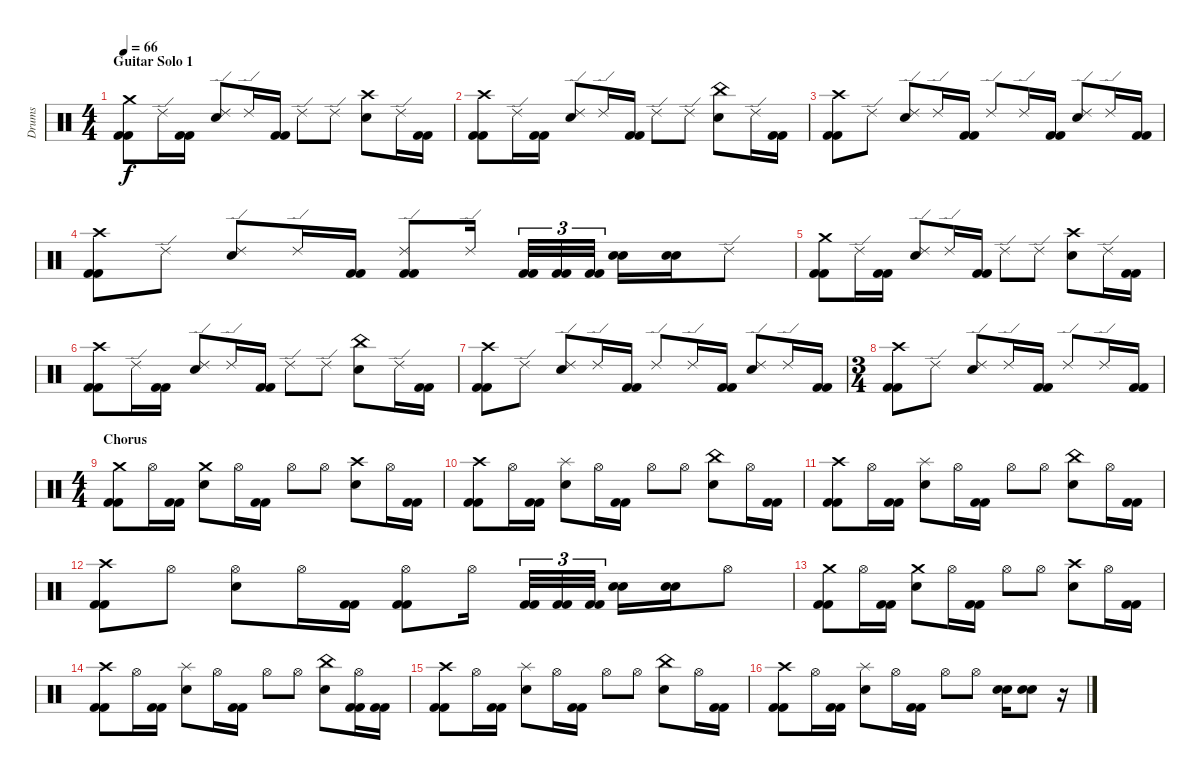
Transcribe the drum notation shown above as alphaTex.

\track ("Drums" "Drums") {instrument percussion}
\staff {score}
\articulation defaults
\ts (4 4)
\section ("" "Guitar Solo 1")
\tempo 66
\clef neutral
\ks c
("Crash medium (hit)" "Kick (hit) 2" "Kick (hit) 2").8{dy f} "Ride (edge) 2".16 ("Kick (hit) 2" "Kick (hit) 2").16 ("Ride (edge) 2" "Snare (hit) 2").8 "Ride (edge) 2".16 ("Kick (hit) 2" "Kick (hit) 2").16 "Ride (edge) 2".8 "Ride (edge) 2".8 ("Crash high (hit)" "Snare (hit) 2").8 "Ride (edge) 2".16 ("Kick (hit) 2" "Kick (hit) 2").16 |
("Crash high (hit)" "Kick (hit) 2" "Kick (hit) 2").8 "Ride (edge) 2".16 ("Kick (hit) 2" "Kick (hit) 2").16 ("Ride (edge) 2" "Snare (hit) 2").8 "Ride (edge) 2".16 ("Kick (hit) 2" "Kick (hit) 2").16 "Ride (edge) 2".8 "Ride (edge) 2".8 ("China (hit)" "Snare (hit) 2").8 "Ride (edge) 2".16 ("Kick (hit) 2" "Kick (hit) 2").16 |
("Crash high (hit)" "Kick (hit) 2" "Kick (hit) 2").8 "Ride (edge) 2".8 ("Ride (edge) 2" "Snare (hit) 2").8 "Ride (edge) 2".16 ("Kick (hit) 2" "Kick (hit) 2").16 "Ride (edge) 2".8 "Ride (edge) 2".16 ("Kick (hit) 2" "Kick (hit) 2").16 ("Ride (edge) 2" "Snare (hit) 2").8 "Ride (edge) 2".16 ("Kick (hit) 2" "Kick (hit) 2").16 |
("Crash high (hit)" "Kick (hit) 2" "Kick (hit) 2").8 "Ride (edge) 2".8 ("Ride (edge) 2" "Snare (hit) 2").8 "Ride (edge) 2".16 ("Kick (hit) 2" "Kick (hit) 2").16 ("Ride (edge) 2" "Kick (hit) 2" "Kick (hit) 2").8 "Ride (edge) 2".16 ("Kick (hit) 2" "Kick (hit) 2").32{tu (3 2)} ("Kick (hit) 2" "Kick (hit) 2").32{tu (3 2)} ("Kick (hit) 2" "Kick (hit) 2").32{tu (3 2)} ("Snare (hit) 2" "Snare (hit) 2").16 ("Snare (hit) 2" "Snare (hit) 2").16 "Ride (edge) 2".8 |
("Crash medium (hit)" "Kick (hit) 2" "Kick (hit) 2").8 "Ride (edge) 2".16 ("Kick (hit) 2" "Kick (hit) 2").16 ("Ride (edge) 2" "Snare (hit) 2").8 "Ride (edge) 2".16 ("Kick (hit) 2" "Kick (hit) 2").16 "Ride (edge) 2".8 "Ride (edge) 2".8 ("Crash high (hit)" "Snare (hit) 2").8 "Ride (edge) 2".16 ("Kick (hit) 2" "Kick (hit) 2").16 |
("Crash high (hit)" "Kick (hit) 2" "Kick (hit) 2").8 "Ride (edge) 2".16 ("Kick (hit) 2" "Kick (hit) 2").16 ("Ride (edge) 2" "Snare (hit) 2").8 "Ride (edge) 2".16 ("Kick (hit) 2" "Kick (hit) 2").16 "Ride (edge) 2".8 "Ride (edge) 2".8 ("China (hit)" "Snare (hit) 2").8 "Ride (edge) 2".16 ("Kick (hit) 2" "Kick (hit) 2").16 |
("Crash high (hit)" "Kick (hit) 2" "Kick (hit) 2").8 "Ride (edge) 2".8 ("Ride (edge) 2" "Snare (hit) 2").8 "Ride (edge) 2".16 ("Kick (hit) 2" "Kick (hit) 2").16 "Ride (edge) 2".8 "Ride (edge) 2".16 ("Kick (hit) 2" "Kick (hit) 2").16 ("Ride (edge) 2" "Snare (hit) 2").8 "Ride (edge) 2".16 ("Kick (hit) 2" "Kick (hit) 2").16 |
\ts (3 4)
("Crash high (hit)" "Kick (hit) 2" "Kick (hit) 2").8 "Ride (edge) 2".8 ("Ride (edge) 2" "Snare (hit) 2").8 "Ride (edge) 2".16 ("Kick (hit) 2" "Kick (hit) 2").16 "Ride (edge) 2".8 "Ride (edge) 2".16 ("Kick (hit) 2" "Kick (hit) 2").16 |
\ts (4 4)
\section ("" "Chorus")
("Crash medium (hit)" "Kick (hit) 2" "Kick (hit) 2").8 "Hi-Hat (open)".16 ("Kick (hit) 2" "Kick (hit) 2").16 ("Crash medium (hit)" "Snare (hit) 2").8 "Hi-Hat (open)".16 ("Kick (hit) 2" "Kick (hit) 2").16 "Hi-Hat (open)".8 "Hi-Hat (open)".8 ("Crash high (hit)" "Snare (hit) 2").8 "Hi-Hat (open)".16 ("Kick (hit) 2" "Kick (hit) 2").16 |
("Crash high (hit)" "Kick (hit) 2" "Kick (hit) 2").8 "Hi-Hat (open)".16 ("Kick (hit) 2" "Kick (hit) 2").16 ("Splash (hit)" "Snare (hit) 2").8 "Hi-Hat (open)".16 ("Kick (hit) 2" "Kick (hit) 2").16 "Hi-Hat (open)".8 "Hi-Hat (open)".8 ("China (hit)" "Snare (hit) 2").8 "Hi-Hat (open)".16 ("Kick (hit) 2" "Kick (hit) 2").16 |
("Crash high (hit)" "Kick (hit) 2" "Kick (hit) 2").8 "Hi-Hat (open)".16 ("Kick (hit) 2" "Kick (hit) 2").16 ("Splash (hit)" "Snare (hit) 2").8 "Hi-Hat (open)".16 ("Kick (hit) 2" "Kick (hit) 2").16 "Hi-Hat (open)".8 "Hi-Hat (open)".8 ("China (hit)" "Snare (hit) 2").8 "Hi-Hat (open)".16 ("Kick (hit) 2" "Kick (hit) 2").16 |
("Crash high (hit)" "Kick (hit) 2" "Kick (hit) 2").8 "Hi-Hat (open)".8 ("Hi-Hat (open)" "Snare (hit) 2").8 "Hi-Hat (open)".16 ("Kick (hit) 2" "Kick (hit) 2").16 ("Hi-Hat (open)" "Kick (hit) 2" "Kick (hit) 2").8 "Hi-Hat (open)".16 ("Kick (hit) 2" "Kick (hit) 2").32{tu (3 2)} ("Kick (hit) 2" "Kick (hit) 2").32{tu (3 2)} ("Kick (hit) 2" "Kick (hit) 2").32{tu (3 2)} ("Snare (hit) 2" "Snare (hit) 2").16 ("Snare (hit) 2" "Snare (hit) 2").16 "Hi-Hat (open)".8 |
("Crash medium (hit)" "Kick (hit) 2" "Kick (hit) 2").8 "Hi-Hat (open)".16 ("Kick (hit) 2" "Kick (hit) 2").16 ("Crash medium (hit)" "Snare (hit) 2").8 "Hi-Hat (open)".16 ("Kick (hit) 2" "Kick (hit) 2").16 "Hi-Hat (open)".8 "Hi-Hat (open)".8 ("Crash high (hit)" "Snare (hit) 2").8 "Hi-Hat (open)".16 ("Kick (hit) 2" "Kick (hit) 2").16 |
("Crash high (hit)" "Kick (hit) 2" "Kick (hit) 2").8 "Hi-Hat (open)".16 ("Kick (hit) 2" "Kick (hit) 2").16 ("Splash (hit)" "Snare (hit) 2").8 "Hi-Hat (open)".16 ("Kick (hit) 2" "Kick (hit) 2").16 "Hi-Hat (open)".8 "Hi-Hat (open)".8 ("China (hit)" "Snare (hit) 2").8 ("Hi-Hat (open)" "Kick (hit) 2" "Kick (hit) 2").16 ("Kick (hit) 2" "Kick (hit) 2").16 |
("Crash high (hit)" "Kick (hit) 2" "Kick (hit) 2").8 "Hi-Hat (open)".16 ("Kick (hit) 2" "Kick (hit) 2").16 ("Splash (hit)" "Snare (hit) 2").8 "Hi-Hat (open)".16 ("Kick (hit) 2" "Kick (hit) 2").16 "Hi-Hat (open)".8 "Hi-Hat (open)".8 ("China (hit)" "Snare (hit) 2").8 "Hi-Hat (open)".16 ("Kick (hit) 2" "Kick (hit) 2").16 |
("Crash high (hit)" "Kick (hit) 2" "Kick (hit) 2").8 "Hi-Hat (open)".16 ("Kick (hit) 2" "Kick (hit) 2").16 ("Splash (hit)" "Snare (hit) 2").8 "Hi-Hat (open)".16 ("Kick (hit) 2" "Kick (hit) 2").16 "Hi-Hat (open)".8 "Hi-Hat (open)".8 ("Snare (hit) 2" "Snare (hit) 2").16 ("Snare (hit) 2" "Snare (hit) 2").8 r.16
